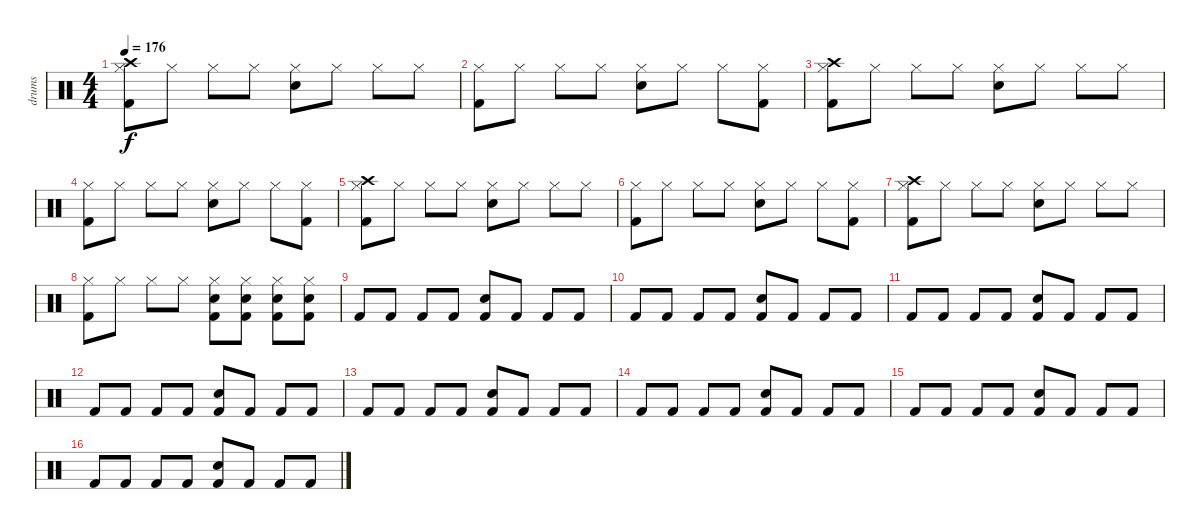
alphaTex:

\track ("drums" "drums") {instrument percussion}
\staff {score}
\articulation defaults
\ts (4 4)
\tempo 176
\clef neutral
\ks c
("Crash high (hit)" "Hi-Hat (closed)" "Kick (hit) 2").8{dy f} "Hi-Hat (closed)".8 "Hi-Hat (closed)".8 "Hi-Hat (closed)".8 ("Hi-Hat (closed)" "Snare (hit) 2").8 "Hi-Hat (closed)".8 "Hi-Hat (closed)".8 "Hi-Hat (closed)".8 |
("Hi-Hat (closed)" "Kick (hit) 2").8 "Hi-Hat (closed)".8 "Hi-Hat (closed)".8 "Hi-Hat (closed)".8 ("Hi-Hat (closed)" "Snare (hit) 2").8 "Hi-Hat (closed)".8 "Hi-Hat (closed)".8 ("Hi-Hat (closed)" "Kick (hit) 2").8 |
("Crash high (hit)" "Hi-Hat (closed)" "Kick (hit) 2").8 "Hi-Hat (closed)".8 "Hi-Hat (closed)".8 "Hi-Hat (closed)".8 ("Hi-Hat (closed)" "Snare (hit) 2").8 "Hi-Hat (closed)".8 "Hi-Hat (closed)".8 "Hi-Hat (closed)".8 |
("Hi-Hat (closed)" "Kick (hit) 2").8 "Hi-Hat (closed)".8 "Hi-Hat (closed)".8 "Hi-Hat (closed)".8 ("Hi-Hat (closed)" "Snare (hit) 2").8 "Hi-Hat (closed)".8 "Hi-Hat (closed)".8 ("Hi-Hat (closed)" "Kick (hit) 2").8 |
("Crash high (hit)" "Hi-Hat (closed)" "Kick (hit) 2").8 "Hi-Hat (closed)".8 "Hi-Hat (closed)".8 "Hi-Hat (closed)".8 ("Hi-Hat (closed)" "Snare (hit) 2").8 "Hi-Hat (closed)".8 "Hi-Hat (closed)".8 "Hi-Hat (closed)".8 |
("Hi-Hat (closed)" "Kick (hit) 2").8 "Hi-Hat (closed)".8 "Hi-Hat (closed)".8 "Hi-Hat (closed)".8 ("Hi-Hat (closed)" "Snare (hit) 2").8 "Hi-Hat (closed)".8 "Hi-Hat (closed)".8 ("Hi-Hat (closed)" "Kick (hit) 2").8 |
("Crash high (hit)" "Hi-Hat (closed)" "Kick (hit) 2").8 "Hi-Hat (closed)".8 "Hi-Hat (closed)".8 "Hi-Hat (closed)".8 ("Hi-Hat (closed)" "Snare (hit) 2").8 "Hi-Hat (closed)".8 "Hi-Hat (closed)".8 "Hi-Hat (closed)".8 |
("Hi-Hat (closed)" "Kick (hit) 2").8 "Hi-Hat (closed)".8 "Hi-Hat (closed)".8 "Hi-Hat (closed)".8 ("Hi-Hat (closed)" "Snare (hit) 2" "Kick (hit) 2").8 ("Hi-Hat (closed)" "Snare (hit) 2" "Kick (hit) 2").8 ("Hi-Hat (closed)" "Snare (hit) 2" "Kick (hit) 2").8 ("Hi-Hat (closed)" "Snare (hit) 2" "Kick (hit) 2").8 |
"Kick (hit) 2".8 "Kick (hit) 2".8 "Kick (hit) 2".8 "Kick (hit) 2".8 ("Snare (hit) 2" "Kick (hit) 2").8 "Kick (hit) 2".8 "Kick (hit) 2".8 "Kick (hit) 2".8 |
"Kick (hit) 2".8 "Kick (hit) 2".8 "Kick (hit) 2".8 "Kick (hit) 2".8 ("Snare (hit) 2" "Kick (hit) 2").8 "Kick (hit) 2".8 "Kick (hit) 2".8 "Kick (hit) 2".8 |
"Kick (hit) 2".8 "Kick (hit) 2".8 "Kick (hit) 2".8 "Kick (hit) 2".8 ("Snare (hit) 2" "Kick (hit) 2").8 "Kick (hit) 2".8 "Kick (hit) 2".8 "Kick (hit) 2".8 |
"Kick (hit) 2".8 "Kick (hit) 2".8 "Kick (hit) 2".8 "Kick (hit) 2".8 ("Snare (hit) 2" "Kick (hit) 2").8 "Kick (hit) 2".8 "Kick (hit) 2".8 "Kick (hit) 2".8 |
"Kick (hit) 2".8 "Kick (hit) 2".8 "Kick (hit) 2".8 "Kick (hit) 2".8 ("Snare (hit) 2" "Kick (hit) 2").8 "Kick (hit) 2".8 "Kick (hit) 2".8 "Kick (hit) 2".8 |
"Kick (hit) 2".8 "Kick (hit) 2".8 "Kick (hit) 2".8 "Kick (hit) 2".8 ("Snare (hit) 2" "Kick (hit) 2").8 "Kick (hit) 2".8 "Kick (hit) 2".8 "Kick (hit) 2".8 |
"Kick (hit) 2".8 "Kick (hit) 2".8 "Kick (hit) 2".8 "Kick (hit) 2".8 ("Snare (hit) 2" "Kick (hit) 2").8 "Kick (hit) 2".8 "Kick (hit) 2".8 "Kick (hit) 2".8 |
"Kick (hit) 2".8 "Kick (hit) 2".8 "Kick (hit) 2".8 "Kick (hit) 2".8 ("Snare (hit) 2" "Kick (hit) 2").8 "Kick (hit) 2".8 "Kick (hit) 2".8 "Kick (hit) 2".8
